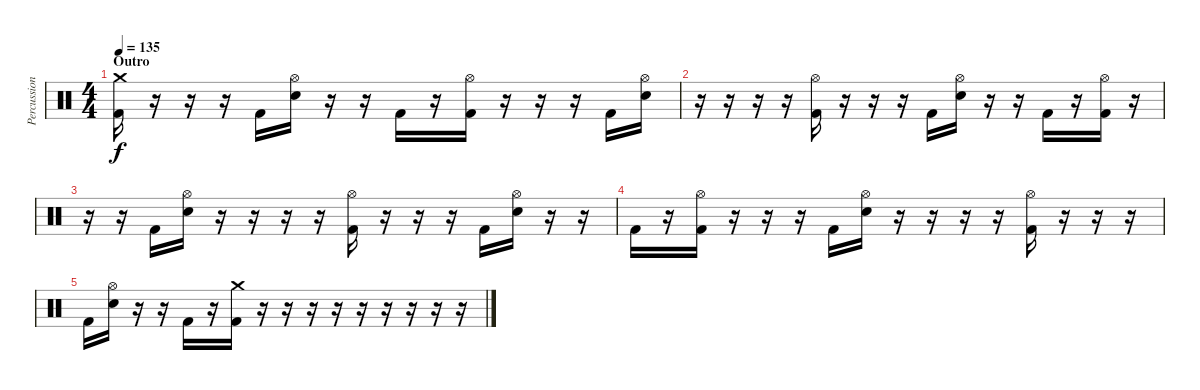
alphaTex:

\track ("Percussion" "Percussion") {instrument percussion}
\staff {score}
\articulation defaults
\ts (4 4)
\section ("" "Outro")
\tempo 135
\clef neutral
\ks c
("Crash medium (hit)" "Kick (hit) 2").16{dy f} r.16 r.16 r.16 "Kick (hit) 2".16 ("Hi-Hat (open)" "Electric Snare (hit)").16 r.16 r.16 "Kick (hit) 2".16 r.16 ("Hi-Hat (open)" "Kick (hit) 2").16 r.16 r.16 r.16 "Kick (hit) 2".16 ("Hi-Hat (open)" "Electric Snare (hit)").16 |
r.16 r.16 r.16 r.16 ("Hi-Hat (open)" "Kick (hit) 2").16 r.16 r.16 r.16 "Kick (hit) 2".16 ("Hi-Hat (open)" "Electric Snare (hit)").16 r.16 r.16 "Kick (hit) 2".16 r.16 ("Hi-Hat (open)" "Kick (hit) 2").16 r.16 |
r.16 r.16 "Kick (hit) 2".16 ("Hi-Hat (open)" "Electric Snare (hit)").16 r.16 r.16 r.16 r.16 ("Hi-Hat (open)" "Kick (hit) 2").16 r.16 r.16 r.16 "Kick (hit) 2".16 ("Hi-Hat (open)" "Electric Snare (hit)").16 r.16 r.16 |
"Kick (hit) 2".16 r.16 ("Hi-Hat (open)" "Kick (hit) 2").16 r.16 r.16 r.16 "Kick (hit) 2".16 ("Hi-Hat (open)" "Electric Snare (hit)").16 r.16 r.16 r.16 r.16 ("Hi-Hat (open)" "Kick (hit) 2").16 r.16 r.16 r.16 |
"Kick (hit) 2".16 ("Hi-Hat (open)" "Electric Snare (hit)").16 r.16 r.16 "Kick (hit) 2".16 r.16 ("Crash medium (hit)" "Kick (hit) 2").16 r.16 r.16 r.16 r.16 r.16 r.16 r.16 r.16 r.16
